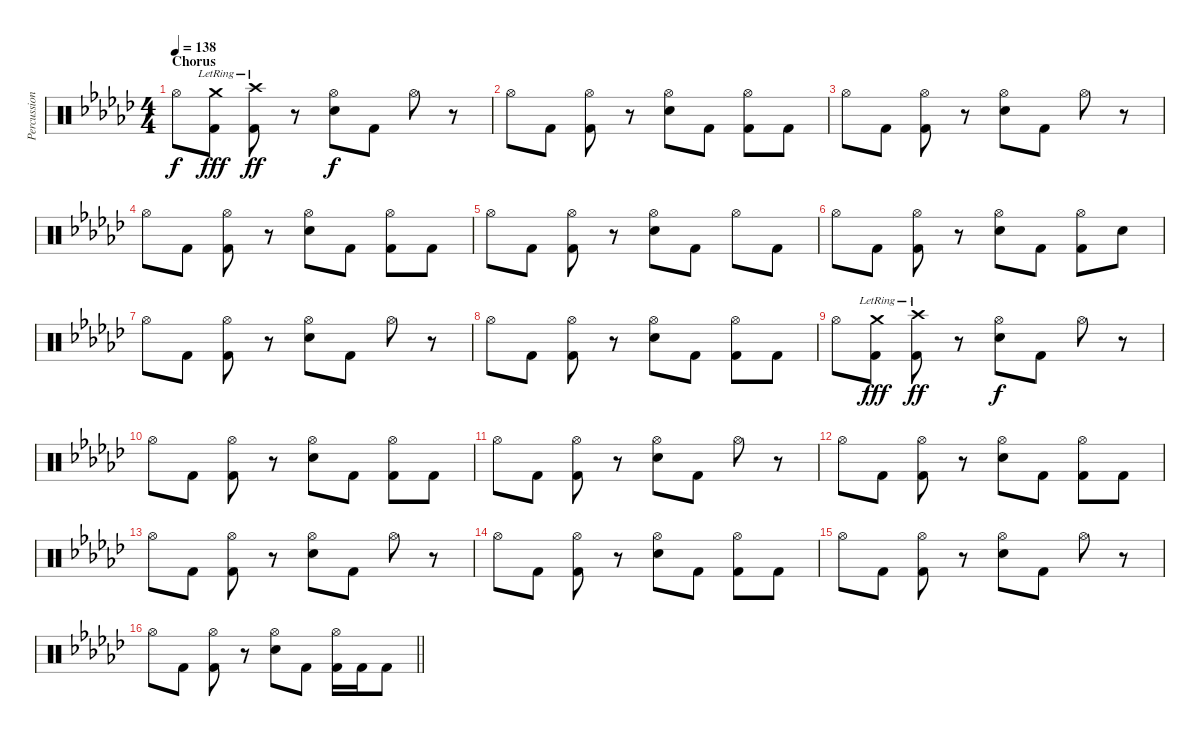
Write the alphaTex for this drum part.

\track ("Percussion" "Percussion") {instrument percussion}
\staff {score}
\articulation defaults
\ts (4 4)
\section ("" "Chorus")
\tempo 138
\clef neutral
\ks gb "Hi-Hat (open)".8{dy f}
("Crash medium (hit)"{lr} "Kick (hit) 2").8{dy fff} ("Crash high (hit)"{lr} "Kick (hit) 2").8{dy ff} r.8 ("Hi-Hat (open)" "Electric Snare (hit)").8{dy f} "Kick (hit) 2".8 "Hi-Hat (open)".8 r.8 |
"Hi-Hat (open)".8 "Kick (hit) 2".8 ("Hi-Hat (open)" "Kick (hit) 2").8 r.8 ("Hi-Hat (open)" "Electric Snare (hit)").8 "Kick (hit) 2".8 ("Hi-Hat (open)" "Kick (hit) 2").8 "Kick (hit) 2".8 |
"Hi-Hat (open)".8 "Kick (hit) 2".8 ("Hi-Hat (open)" "Kick (hit) 2").8 r.8 ("Hi-Hat (open)" "Electric Snare (hit)").8 "Kick (hit) 2".8 "Hi-Hat (open)".8 r.8 |
"Hi-Hat (open)".8 "Kick (hit) 2".8 ("Hi-Hat (open)" "Kick (hit) 2").8 r.8 ("Hi-Hat (open)" "Electric Snare (hit)").8 "Kick (hit) 2".8 ("Hi-Hat (open)" "Kick (hit) 2").8 "Kick (hit) 2".8 |
"Hi-Hat (open)".8 "Kick (hit) 2".8 ("Hi-Hat (open)" "Kick (hit) 2").8 r.8 ("Hi-Hat (open)" "Electric Snare (hit)").8 "Kick (hit) 2".8 "Hi-Hat (open)".8 "Kick (hit) 2".8 |
"Hi-Hat (open)".8 "Kick (hit) 2".8 ("Hi-Hat (open)" "Kick (hit) 2").8 r.8 ("Hi-Hat (open)" "Electric Snare (hit)").8 "Kick (hit) 2".8 ("Hi-Hat (open)" "Kick (hit) 2").8 "Electric Snare (hit)".8 |
"Hi-Hat (open)".8 "Kick (hit) 2".8 ("Hi-Hat (open)" "Kick (hit) 2").8 r.8 ("Hi-Hat (open)" "Electric Snare (hit)").8 "Kick (hit) 2".8 "Hi-Hat (open)".8 r.8 |
"Hi-Hat (open)".8 "Kick (hit) 2".8 ("Hi-Hat (open)" "Kick (hit) 2").8 r.8 ("Hi-Hat (open)" "Electric Snare (hit)").8 "Kick (hit) 2".8 ("Hi-Hat (open)" "Kick (hit) 2").8 "Kick (hit) 2".8 |
"Hi-Hat (open)".8 ("Crash medium (hit)"{lr} "Kick (hit) 2").8{dy fff} ("Crash high (hit)"{lr} "Kick (hit) 2").8{dy ff} r.8 ("Hi-Hat (open)" "Electric Snare (hit)").8{dy f} "Kick (hit) 2".8 "Hi-Hat (open)".8 r.8 |
"Hi-Hat (open)".8 "Kick (hit) 2".8 ("Hi-Hat (open)" "Kick (hit) 2").8 r.8 ("Hi-Hat (open)" "Electric Snare (hit)").8 "Kick (hit) 2".8 ("Hi-Hat (open)" "Kick (hit) 2").8 "Kick (hit) 2".8 |
"Hi-Hat (open)".8 "Kick (hit) 2".8 ("Hi-Hat (open)" "Kick (hit) 2").8 r.8 ("Hi-Hat (open)" "Electric Snare (hit)").8 "Kick (hit) 2".8 "Hi-Hat (open)".8 r.8 |
"Hi-Hat (open)".8 "Kick (hit) 2".8 ("Hi-Hat (open)" "Kick (hit) 2").8 r.8 ("Hi-Hat (open)" "Electric Snare (hit)").8 "Kick (hit) 2".8 ("Hi-Hat (open)" "Kick (hit) 2").8 "Kick (hit) 2".8 |
"Hi-Hat (open)".8 "Kick (hit) 2".8 ("Hi-Hat (open)" "Kick (hit) 2").8 r.8 ("Hi-Hat (open)" "Electric Snare (hit)").8 "Kick (hit) 2".8 "Hi-Hat (open)".8 r.8 |
"Hi-Hat (open)".8 "Kick (hit) 2".8 ("Hi-Hat (open)" "Kick (hit) 2").8 r.8 ("Hi-Hat (open)" "Electric Snare (hit)").8 "Kick (hit) 2".8 ("Hi-Hat (open)" "Kick (hit) 2").8 "Kick (hit) 2".8 |
"Hi-Hat (open)".8 "Kick (hit) 2".8 ("Hi-Hat (open)" "Kick (hit) 2").8 r.8 ("Hi-Hat (open)" "Electric Snare (hit)").8 "Kick (hit) 2".8 "Hi-Hat (open)".8 r.8 |
\barLineRight lightlight "Hi-Hat (open)".8 "Kick (hit) 2".8
("Hi-Hat (open)" "Kick (hit) 2").8 r.8 ("Hi-Hat (open)" "Electric Snare (hit)").8 "Kick (hit) 2".8 ("Hi-Hat (open)" "Kick (hit) 2").16 "Kick (hit) 2".16 "Kick (hit) 2".8
